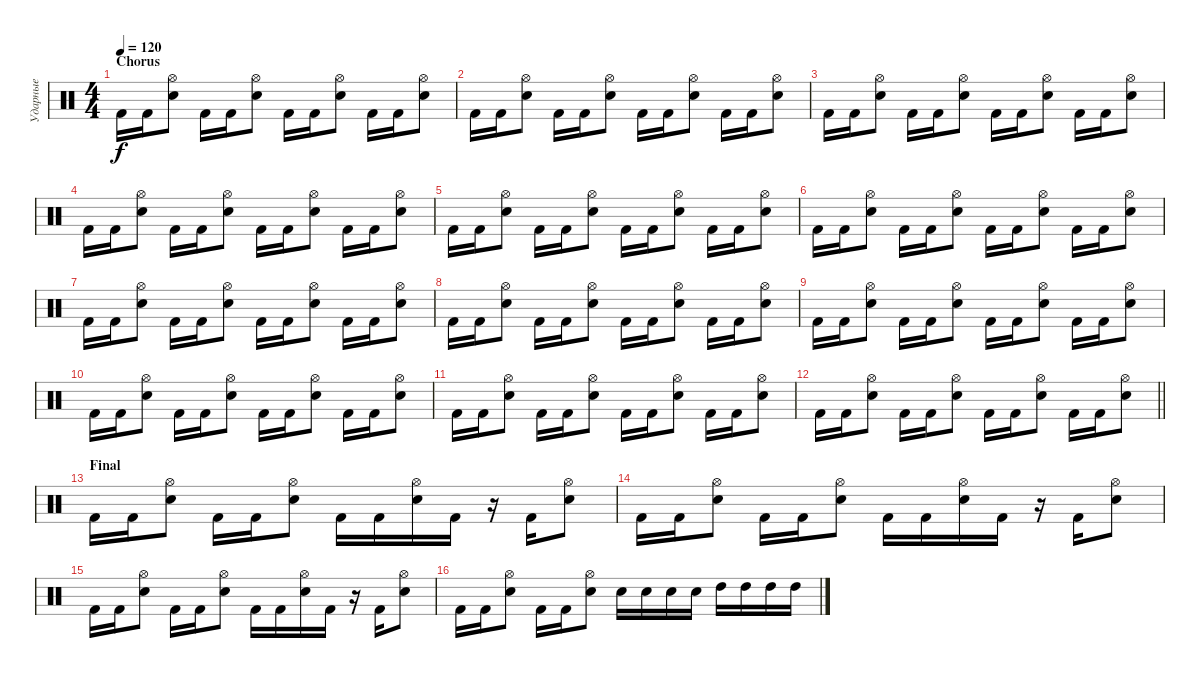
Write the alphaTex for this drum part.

\track ("Ударные" "Ударные") {instrument percussion}
\staff {score}
\articulation defaults
\ts (4 4)
\section ("" "Chorus")
\tempo 120
\clef neutral
\ks c "Kick (hit) 2".16{dy f} "Kick (hit) 2".16
("Electric Snare (hit)" "Hi-Hat (open)").8 "Kick (hit) 2".16 "Kick (hit) 2".16 ("Electric Snare (hit)" "Hi-Hat (open)").8 "Kick (hit) 2".16 "Kick (hit) 2".16 ("Electric Snare (hit)" "Hi-Hat (open)").8 "Kick (hit) 2".16 "Kick (hit) 2".16 ("Electric Snare (hit)" "Hi-Hat (open)").8 |
"Kick (hit) 2".16 "Kick (hit) 2".16 ("Electric Snare (hit)" "Hi-Hat (open)").8 "Kick (hit) 2".16 "Kick (hit) 2".16 ("Electric Snare (hit)" "Hi-Hat (open)").8 "Kick (hit) 2".16 "Kick (hit) 2".16 ("Electric Snare (hit)" "Hi-Hat (open)").8 "Kick (hit) 2".16 "Kick (hit) 2".16 ("Electric Snare (hit)" "Hi-Hat (open)").8 |
"Kick (hit) 2".16 "Kick (hit) 2".16 ("Electric Snare (hit)" "Hi-Hat (open)").8 "Kick (hit) 2".16 "Kick (hit) 2".16 ("Electric Snare (hit)" "Hi-Hat (open)").8 "Kick (hit) 2".16 "Kick (hit) 2".16 ("Electric Snare (hit)" "Hi-Hat (open)").8 "Kick (hit) 2".16 "Kick (hit) 2".16 ("Electric Snare (hit)" "Hi-Hat (open)").8 |
"Kick (hit) 2".16 "Kick (hit) 2".16 ("Electric Snare (hit)" "Hi-Hat (open)").8 "Kick (hit) 2".16 "Kick (hit) 2".16 ("Electric Snare (hit)" "Hi-Hat (open)").8 "Kick (hit) 2".16 "Kick (hit) 2".16 ("Electric Snare (hit)" "Hi-Hat (open)").8 "Kick (hit) 2".16 "Kick (hit) 2".16 ("Electric Snare (hit)" "Hi-Hat (open)").8 |
"Kick (hit) 2".16 "Kick (hit) 2".16 ("Electric Snare (hit)" "Hi-Hat (open)").8 "Kick (hit) 2".16 "Kick (hit) 2".16 ("Electric Snare (hit)" "Hi-Hat (open)").8 "Kick (hit) 2".16 "Kick (hit) 2".16 ("Electric Snare (hit)" "Hi-Hat (open)").8 "Kick (hit) 2".16 "Kick (hit) 2".16 ("Electric Snare (hit)" "Hi-Hat (open)").8 |
"Kick (hit) 2".16 "Kick (hit) 2".16 ("Electric Snare (hit)" "Hi-Hat (open)").8 "Kick (hit) 2".16 "Kick (hit) 2".16 ("Electric Snare (hit)" "Hi-Hat (open)").8 "Kick (hit) 2".16 "Kick (hit) 2".16 ("Electric Snare (hit)" "Hi-Hat (open)").8 "Kick (hit) 2".16 "Kick (hit) 2".16 ("Electric Snare (hit)" "Hi-Hat (open)").8 |
"Kick (hit) 2".16 "Kick (hit) 2".16 ("Electric Snare (hit)" "Hi-Hat (open)").8 "Kick (hit) 2".16 "Kick (hit) 2".16 ("Electric Snare (hit)" "Hi-Hat (open)").8 "Kick (hit) 2".16 "Kick (hit) 2".16 ("Electric Snare (hit)" "Hi-Hat (open)").8 "Kick (hit) 2".16 "Kick (hit) 2".16 ("Electric Snare (hit)" "Hi-Hat (open)").8 |
"Kick (hit) 2".16 "Kick (hit) 2".16 ("Electric Snare (hit)" "Hi-Hat (open)").8 "Kick (hit) 2".16 "Kick (hit) 2".16 ("Electric Snare (hit)" "Hi-Hat (open)").8 "Kick (hit) 2".16 "Kick (hit) 2".16 ("Electric Snare (hit)" "Hi-Hat (open)").8 "Kick (hit) 2".16 "Kick (hit) 2".16 ("Electric Snare (hit)" "Hi-Hat (open)").8 |
"Kick (hit) 2".16 "Kick (hit) 2".16 ("Electric Snare (hit)" "Hi-Hat (open)").8 "Kick (hit) 2".16 "Kick (hit) 2".16 ("Electric Snare (hit)" "Hi-Hat (open)").8 "Kick (hit) 2".16 "Kick (hit) 2".16 ("Electric Snare (hit)" "Hi-Hat (open)").8 "Kick (hit) 2".16 "Kick (hit) 2".16 ("Electric Snare (hit)" "Hi-Hat (open)").8 |
"Kick (hit) 2".16 "Kick (hit) 2".16 ("Electric Snare (hit)" "Hi-Hat (open)").8 "Kick (hit) 2".16 "Kick (hit) 2".16 ("Electric Snare (hit)" "Hi-Hat (open)").8 "Kick (hit) 2".16 "Kick (hit) 2".16 ("Electric Snare (hit)" "Hi-Hat (open)").8 "Kick (hit) 2".16 "Kick (hit) 2".16 ("Electric Snare (hit)" "Hi-Hat (open)").8 |
"Kick (hit) 2".16 "Kick (hit) 2".16 ("Electric Snare (hit)" "Hi-Hat (open)").8 "Kick (hit) 2".16 "Kick (hit) 2".16 ("Electric Snare (hit)" "Hi-Hat (open)").8 "Kick (hit) 2".16 "Kick (hit) 2".16 ("Electric Snare (hit)" "Hi-Hat (open)").8 "Kick (hit) 2".16 "Kick (hit) 2".16 ("Electric Snare (hit)" "Hi-Hat (open)").8 |
\barLineRight lightlight "Kick (hit) 2".16 "Kick (hit) 2".16
("Electric Snare (hit)" "Hi-Hat (open)").8 "Kick (hit) 2".16 "Kick (hit) 2".16 ("Electric Snare (hit)" "Hi-Hat (open)").8 "Kick (hit) 2".16 "Kick (hit) 2".16 ("Electric Snare (hit)" "Hi-Hat (open)").8 "Kick (hit) 2".16 "Kick (hit) 2".16 ("Electric Snare (hit)" "Hi-Hat (open)").8 |
\section ("" "Final")
"Kick (hit) 2".16 "Kick (hit) 2".16 ("Electric Snare (hit)" "Hi-Hat (open)").8 "Kick (hit) 2".16 "Kick (hit) 2".16 ("Electric Snare (hit)" "Hi-Hat (open)").8 "Kick (hit) 2".16 "Kick (hit) 2".16 ("Electric Snare (hit)" "Hi-Hat (open)").16 "Kick (hit) 2".16 r.16 "Kick (hit) 2".16 ("Electric Snare (hit)" "Hi-Hat (open)").8 |
"Kick (hit) 2".16 "Kick (hit) 2".16 ("Electric Snare (hit)" "Hi-Hat (open)").8 "Kick (hit) 2".16 "Kick (hit) 2".16 ("Electric Snare (hit)" "Hi-Hat (open)").8 "Kick (hit) 2".16 "Kick (hit) 2".16 ("Electric Snare (hit)" "Hi-Hat (open)").16 "Kick (hit) 2".16 r.16 "Kick (hit) 2".16 ("Electric Snare (hit)" "Hi-Hat (open)").8 |
"Kick (hit) 2".16 "Kick (hit) 2".16 ("Electric Snare (hit)" "Hi-Hat (open)").8 "Kick (hit) 2".16 "Kick (hit) 2".16 ("Electric Snare (hit)" "Hi-Hat (open)").8 "Kick (hit) 2".16 "Kick (hit) 2".16 ("Electric Snare (hit)" "Hi-Hat (open)").16 "Kick (hit) 2".16 r.16 "Kick (hit) 2".16 ("Electric Snare (hit)" "Hi-Hat (open)").8 |
"Kick (hit) 2".16 "Kick (hit) 2".16 ("Electric Snare (hit)" "Hi-Hat (open)").8 "Kick (hit) 2".16 "Kick (hit) 2".16 ("Electric Snare (hit)" "Hi-Hat (open)").8 "Electric Snare (hit)".16 "Electric Snare (hit)".16 "Electric Snare (hit)".16 "Electric Snare (hit)".16 "High Tom (hit)".16 "High Tom (hit)".16 "High Tom (hit)".16 "High Tom (hit)".16
